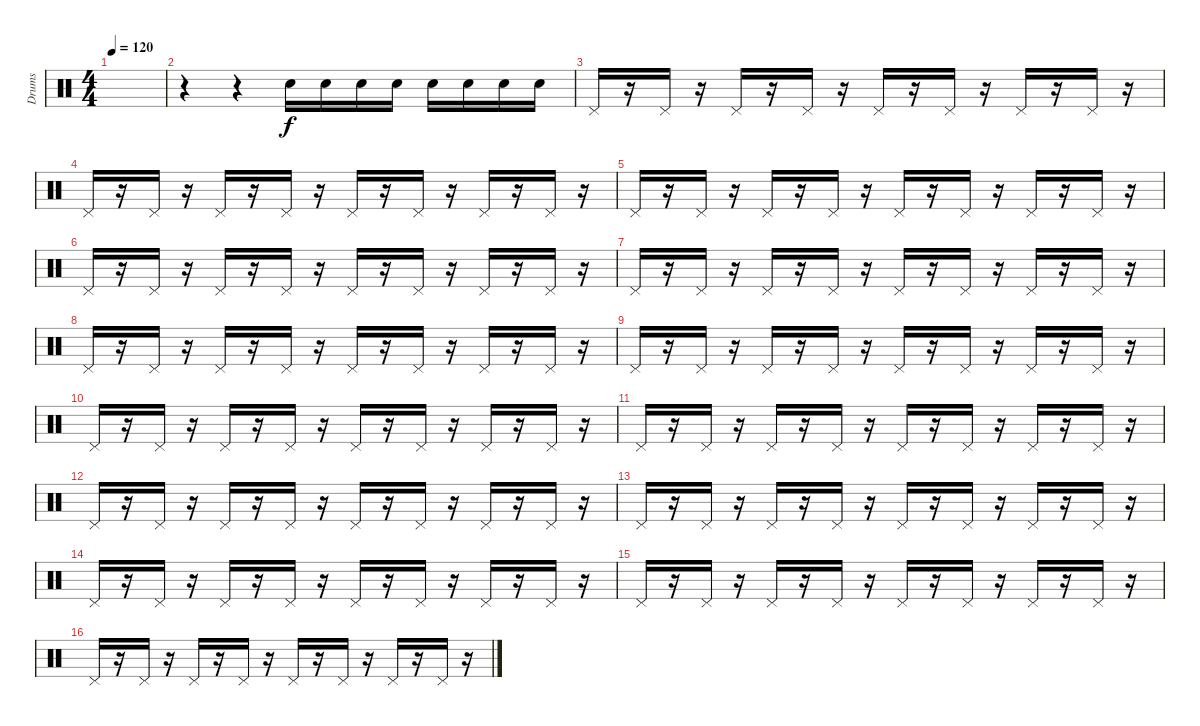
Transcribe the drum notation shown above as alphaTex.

\track ("Drums" "Drums") {instrument percussion}
\staff {score}
\articulation defaults
\ts (4 4)
\tempo 120
\clef neutral
\ks c
|
r.4 r.4 "Electric Snare (hit)".16 "Electric Snare (hit)".16 "Electric Snare (hit)".16 "Electric Snare (hit)".16 "Electric Snare (hit)".16 "Electric Snare (hit)".16 "Electric Snare (hit)".16 "Electric Snare (hit)".16 |
"Pedal Hi-Hat (hit)".16 r.16 "Pedal Hi-Hat (hit)".16 r.16 "Pedal Hi-Hat (hit)".16 r.16 "Pedal Hi-Hat (hit)".16 r.16 "Pedal Hi-Hat (hit)".16 r.16 "Pedal Hi-Hat (hit)".16 r.16 "Pedal Hi-Hat (hit)".16 r.16 "Pedal Hi-Hat (hit)".16 r.16 |
"Pedal Hi-Hat (hit)".16 r.16 "Pedal Hi-Hat (hit)".16 r.16 "Pedal Hi-Hat (hit)".16 r.16 "Pedal Hi-Hat (hit)".16 r.16 "Pedal Hi-Hat (hit)".16 r.16 "Pedal Hi-Hat (hit)".16 r.16 "Pedal Hi-Hat (hit)".16 r.16 "Pedal Hi-Hat (hit)".16 r.16 |
"Pedal Hi-Hat (hit)".16 r.16 "Pedal Hi-Hat (hit)".16 r.16 "Pedal Hi-Hat (hit)".16 r.16 "Pedal Hi-Hat (hit)".16 r.16 "Pedal Hi-Hat (hit)".16 r.16 "Pedal Hi-Hat (hit)".16 r.16 "Pedal Hi-Hat (hit)".16 r.16 "Pedal Hi-Hat (hit)".16 r.16 |
"Pedal Hi-Hat (hit)".16 r.16 "Pedal Hi-Hat (hit)".16 r.16 "Pedal Hi-Hat (hit)".16 r.16 "Pedal Hi-Hat (hit)".16 r.16 "Pedal Hi-Hat (hit)".16 r.16 "Pedal Hi-Hat (hit)".16 r.16 "Pedal Hi-Hat (hit)".16 r.16 "Pedal Hi-Hat (hit)".16 r.16 |
"Pedal Hi-Hat (hit)".16 r.16 "Pedal Hi-Hat (hit)".16 r.16 "Pedal Hi-Hat (hit)".16 r.16 "Pedal Hi-Hat (hit)".16 r.16 "Pedal Hi-Hat (hit)".16 r.16 "Pedal Hi-Hat (hit)".16 r.16 "Pedal Hi-Hat (hit)".16 r.16 "Pedal Hi-Hat (hit)".16 r.16 |
"Pedal Hi-Hat (hit)".16 r.16 "Pedal Hi-Hat (hit)".16 r.16 "Pedal Hi-Hat (hit)".16 r.16 "Pedal Hi-Hat (hit)".16 r.16 "Pedal Hi-Hat (hit)".16 r.16 "Pedal Hi-Hat (hit)".16 r.16 "Pedal Hi-Hat (hit)".16 r.16 "Pedal Hi-Hat (hit)".16 r.16 |
"Pedal Hi-Hat (hit)".16 r.16 "Pedal Hi-Hat (hit)".16 r.16 "Pedal Hi-Hat (hit)".16 r.16 "Pedal Hi-Hat (hit)".16 r.16 "Pedal Hi-Hat (hit)".16 r.16 "Pedal Hi-Hat (hit)".16 r.16 "Pedal Hi-Hat (hit)".16 r.16 "Pedal Hi-Hat (hit)".16 r.16 |
"Pedal Hi-Hat (hit)".16 r.16 "Pedal Hi-Hat (hit)".16 r.16 "Pedal Hi-Hat (hit)".16 r.16 "Pedal Hi-Hat (hit)".16 r.16 "Pedal Hi-Hat (hit)".16 r.16 "Pedal Hi-Hat (hit)".16 r.16 "Pedal Hi-Hat (hit)".16 r.16 "Pedal Hi-Hat (hit)".16 r.16 |
"Pedal Hi-Hat (hit)".16 r.16 "Pedal Hi-Hat (hit)".16 r.16 "Pedal Hi-Hat (hit)".16 r.16 "Pedal Hi-Hat (hit)".16 r.16 "Pedal Hi-Hat (hit)".16 r.16 "Pedal Hi-Hat (hit)".16 r.16 "Pedal Hi-Hat (hit)".16 r.16 "Pedal Hi-Hat (hit)".16 r.16 |
"Pedal Hi-Hat (hit)".16 r.16 "Pedal Hi-Hat (hit)".16 r.16 "Pedal Hi-Hat (hit)".16 r.16 "Pedal Hi-Hat (hit)".16 r.16 "Pedal Hi-Hat (hit)".16 r.16 "Pedal Hi-Hat (hit)".16 r.16 "Pedal Hi-Hat (hit)".16 r.16 "Pedal Hi-Hat (hit)".16 r.16 |
"Pedal Hi-Hat (hit)".16 r.16 "Pedal Hi-Hat (hit)".16 r.16 "Pedal Hi-Hat (hit)".16 r.16 "Pedal Hi-Hat (hit)".16 r.16 "Pedal Hi-Hat (hit)".16 r.16 "Pedal Hi-Hat (hit)".16 r.16 "Pedal Hi-Hat (hit)".16 r.16 "Pedal Hi-Hat (hit)".16 r.16 |
"Pedal Hi-Hat (hit)".16 r.16 "Pedal Hi-Hat (hit)".16 r.16 "Pedal Hi-Hat (hit)".16 r.16 "Pedal Hi-Hat (hit)".16 r.16 "Pedal Hi-Hat (hit)".16 r.16 "Pedal Hi-Hat (hit)".16 r.16 "Pedal Hi-Hat (hit)".16 r.16 "Pedal Hi-Hat (hit)".16 r.16 |
"Pedal Hi-Hat (hit)".16 r.16 "Pedal Hi-Hat (hit)".16 r.16 "Pedal Hi-Hat (hit)".16 r.16 "Pedal Hi-Hat (hit)".16 r.16 "Pedal Hi-Hat (hit)".16 r.16 "Pedal Hi-Hat (hit)".16 r.16 "Pedal Hi-Hat (hit)".16 r.16 "Pedal Hi-Hat (hit)".16 r.16 |
"Pedal Hi-Hat (hit)".16 r.16 "Pedal Hi-Hat (hit)".16 r.16 "Pedal Hi-Hat (hit)".16 r.16 "Pedal Hi-Hat (hit)".16 r.16 "Pedal Hi-Hat (hit)".16 r.16 "Pedal Hi-Hat (hit)".16 r.16 "Pedal Hi-Hat (hit)".16 r.16 "Pedal Hi-Hat (hit)".16 r.16
